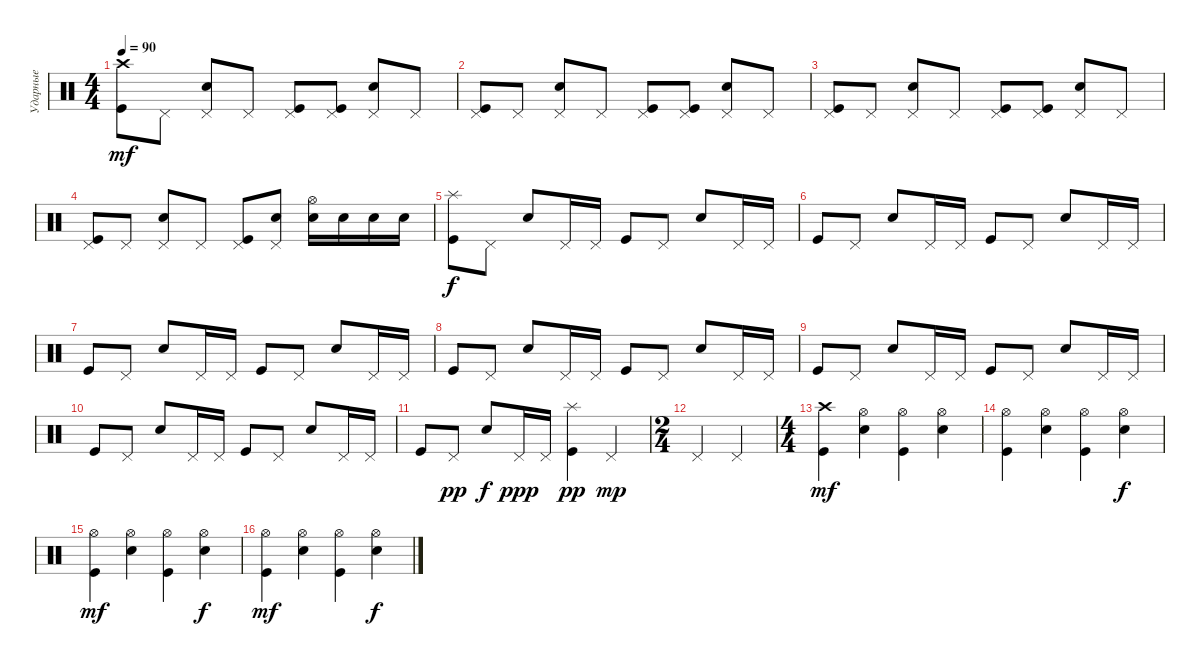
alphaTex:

\track ("Ударные" "Ударные") {instrument percussion}
\staff {score}
\articulation defaults
\ts (4 4)
\tempo 90
\clef neutral
\ks c
("Crash high (hit)" "Kick (hit)").8{dy mf} "Pedal Hi-Hat (hit)".8 ("Pedal Hi-Hat (hit)" "Electric Snare (hit)").8 "Pedal Hi-Hat (hit)".8 ("Pedal Hi-Hat (hit)" "Kick (hit)").8 ("Pedal Hi-Hat (hit)" "Kick (hit)").8 ("Pedal Hi-Hat (hit)" "Electric Snare (hit)").8 "Pedal Hi-Hat (hit)".8 |
("Pedal Hi-Hat (hit)" "Kick (hit)").8 "Pedal Hi-Hat (hit)".8 ("Pedal Hi-Hat (hit)" "Electric Snare (hit)").8 "Pedal Hi-Hat (hit)".8 ("Pedal Hi-Hat (hit)" "Kick (hit)").8 ("Pedal Hi-Hat (hit)" "Kick (hit)").8 ("Pedal Hi-Hat (hit)" "Electric Snare (hit)").8 "Pedal Hi-Hat (hit)".8 |
("Pedal Hi-Hat (hit)" "Kick (hit)").8 "Pedal Hi-Hat (hit)".8 ("Pedal Hi-Hat (hit)" "Electric Snare (hit)").8 "Pedal Hi-Hat (hit)".8 ("Pedal Hi-Hat (hit)" "Kick (hit)").8 ("Pedal Hi-Hat (hit)" "Kick (hit)").8 ("Pedal Hi-Hat (hit)" "Electric Snare (hit)").8 "Pedal Hi-Hat (hit)".8 |
("Pedal Hi-Hat (hit)" "Kick (hit)").8 "Pedal Hi-Hat (hit)".8 ("Pedal Hi-Hat (hit)" "Electric Snare (hit)").8 "Pedal Hi-Hat (hit)".8 ("Pedal Hi-Hat (hit)" "Kick (hit)").8 ("Pedal Hi-Hat (hit)" "Electric Snare (hit)").8 ("Hi-Hat (open)" "Electric Snare (hit)").16 "Electric Snare (hit)".16 "Electric Snare (hit)".16 "Electric Snare (hit)".16 |
("Kick (hit)" "Splash (hit)").8{dy f} "Pedal Hi-Hat (hit)".8 "Electric Snare (hit)".8 "Pedal Hi-Hat (hit)".16 "Pedal Hi-Hat (hit)".16 "Kick (hit)".8 "Pedal Hi-Hat (hit)".8 "Electric Snare (hit)".8 "Pedal Hi-Hat (hit)".16 "Pedal Hi-Hat (hit)".16 |
"Kick (hit)".8 "Pedal Hi-Hat (hit)".8 "Electric Snare (hit)".8 "Pedal Hi-Hat (hit)".16 "Pedal Hi-Hat (hit)".16 "Kick (hit)".8 "Pedal Hi-Hat (hit)".8 "Electric Snare (hit)".8 "Pedal Hi-Hat (hit)".16 "Pedal Hi-Hat (hit)".16 |
"Kick (hit)".8 "Pedal Hi-Hat (hit)".8 "Electric Snare (hit)".8 "Pedal Hi-Hat (hit)".16 "Pedal Hi-Hat (hit)".16 "Kick (hit)".8 "Pedal Hi-Hat (hit)".8 "Electric Snare (hit)".8 "Pedal Hi-Hat (hit)".16 "Pedal Hi-Hat (hit)".16 |
"Kick (hit)".8 "Pedal Hi-Hat (hit)".8 "Electric Snare (hit)".8 "Pedal Hi-Hat (hit)".16 "Pedal Hi-Hat (hit)".16 "Kick (hit)".8 "Pedal Hi-Hat (hit)".8 "Electric Snare (hit)".8 "Pedal Hi-Hat (hit)".16 "Pedal Hi-Hat (hit)".16 |
"Kick (hit)".8 "Pedal Hi-Hat (hit)".8 "Electric Snare (hit)".8 "Pedal Hi-Hat (hit)".16 "Pedal Hi-Hat (hit)".16 "Kick (hit)".8 "Pedal Hi-Hat (hit)".8 "Electric Snare (hit)".8 "Pedal Hi-Hat (hit)".16 "Pedal Hi-Hat (hit)".16 |
"Kick (hit)".8 "Pedal Hi-Hat (hit)".8 "Electric Snare (hit)".8 "Pedal Hi-Hat (hit)".16 "Pedal Hi-Hat (hit)".16 "Kick (hit)".8 "Pedal Hi-Hat (hit)".8 "Electric Snare (hit)".8 "Pedal Hi-Hat (hit)".16 "Pedal Hi-Hat (hit)".16 |
"Kick (hit)".8 "Pedal Hi-Hat (hit)".8{dy pp} "Electric Snare (hit)".8{dy f} "Pedal Hi-Hat (hit)".16{dy ppp} "Pedal Hi-Hat (hit)".16 ("Splash (hit)" "Kick (hit)").4{dy pp} "Pedal Hi-Hat (hit)".4{dy mp} |
\ts (2 4)
"Pedal Hi-Hat (hit)".4 "Pedal Hi-Hat (hit)".4 |
\ts (4 4)
("Crash high (hit)" "Kick (hit)").4{dy mf} ("Hi-Hat (open)" "Electric Snare (hit)").4 ("Hi-Hat (open)" "Kick (hit)").4 ("Hi-Hat (open)" "Electric Snare (hit)").4 |
("Hi-Hat (open)" "Kick (hit)").4 ("Hi-Hat (open)" "Electric Snare (hit)").4 ("Hi-Hat (open)" "Kick (hit)").4 ("Hi-Hat (open)" "Electric Snare (hit)").4{dy f} |
("Hi-Hat (open)" "Kick (hit)").4{dy mf} ("Hi-Hat (open)" "Electric Snare (hit)").4 ("Hi-Hat (open)" "Kick (hit)").4 ("Hi-Hat (open)" "Electric Snare (hit)").4{dy f} |
("Hi-Hat (open)" "Kick (hit)").4{dy mf} ("Hi-Hat (open)" "Electric Snare (hit)").4 ("Hi-Hat (open)" "Kick (hit)").4 ("Hi-Hat (open)" "Electric Snare (hit)").4{dy f}
